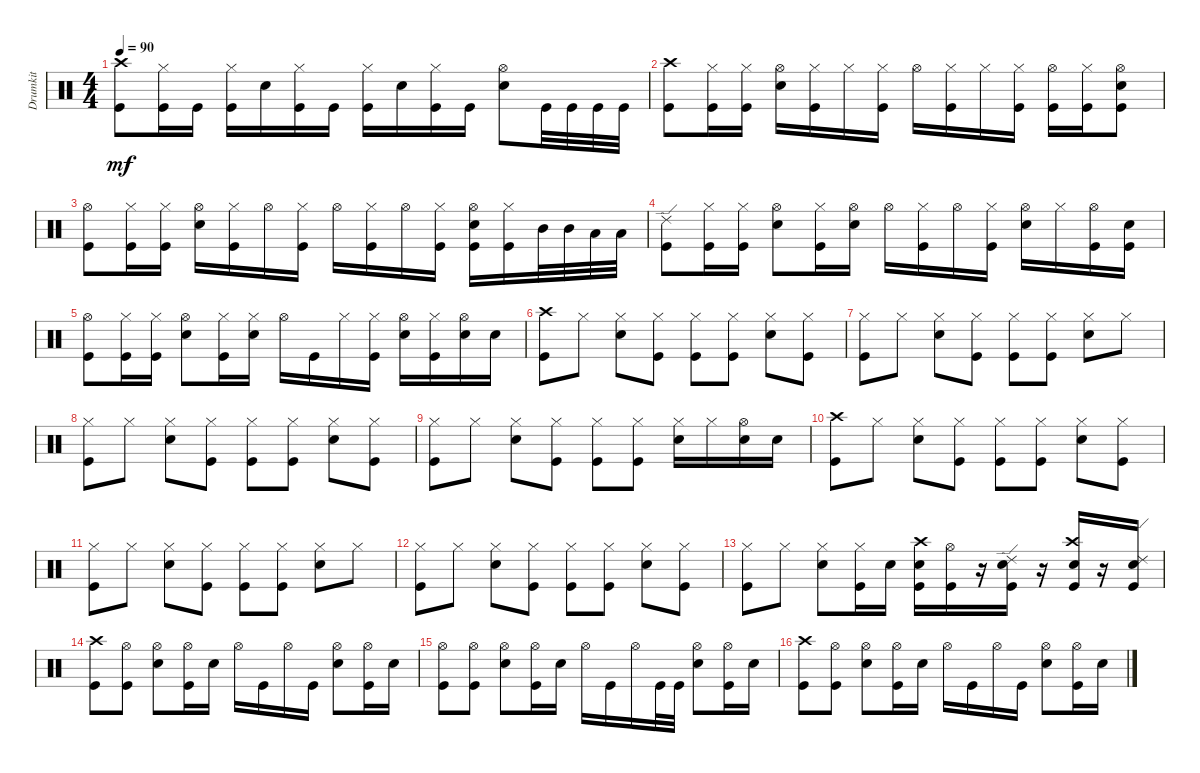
\track ("Drumkit" "Drumkit") {instrument percussion}
\staff {score}
\articulation defaults
\ts (4 4)
\tempo 90
\clef neutral
\ks c
("Kick (hit)" "Crash high (hit)").8{dy mf} ("Kick (hit)" "Hi-Hat (closed)").16 "Kick (hit)".16 ("Kick (hit)" "Hi-Hat (closed)").16 "Snare (hit) 2".16 ("Kick (hit)" "Hi-Hat (closed)").16 "Kick (hit)".16 ("Kick (hit)" "Hi-Hat (closed)").16 "Snare (hit) 2".16 ("Kick (hit)" "Hi-Hat (closed)").16 "Kick (hit)".16 ("Snare (hit) 2" "Hi-Hat (open)").8 "Kick (hit)".32 "Kick (hit)".32 "Kick (hit)".32 "Kick (hit)".32 |
("Kick (hit)" "Crash high (hit)").8 ("Kick (hit)" "Hi-Hat (closed)").16 ("Kick (hit)" "Hi-Hat (closed)").16 ("Snare (hit) 2" "Hi-Hat (open)").16 ("Kick (hit)" "Hi-Hat (closed)").16 "Hi-Hat (closed)".16 ("Kick (hit)" "Hi-Hat (closed)").16 "Hi-Hat (open)".16 ("Kick (hit)" "Hi-Hat (closed)").16 "Hi-Hat (closed)".16 ("Kick (hit)" "Hi-Hat (closed)").16 ("Kick (hit)" "Hi-Hat (open)").16 ("Kick (hit)" "Hi-Hat (closed)").16 ("Kick (hit)" "Snare (hit) 2" "Hi-Hat (open)").8 |
("Kick (hit)" "Hi-Hat (open)").8 ("Kick (hit)" "Hi-Hat (closed)").16 ("Kick (hit)" "Hi-Hat (closed)").16 ("Snare (hit) 2" "Hi-Hat (open)").16 ("Kick (hit)" "Hi-Hat (closed)").16 "Hi-Hat (open)".16 ("Kick (hit)" "Hi-Hat (closed)").16 "Hi-Hat (open)".16 ("Kick (hit)" "Hi-Hat (closed)").16 "Hi-Hat (open)".16 ("Kick (hit)" "Hi-Hat (closed)").16 ("Kick (hit)" "Snare (hit) 2" "Hi-Hat (open)").16 ("Kick (hit)" "Hi-Hat (closed)").16 "Mid Tom (hit)".32 "Mid Tom (hit)".32 "Low Tom (hit)".32 "Low Tom (hit)".32 |
("Kick (hit)" "Ride (edge) 2").8 ("Kick (hit)" "Hi-Hat (closed)").16 ("Kick (hit)" "Hi-Hat (closed)").16 ("Snare (hit) 2" "Hi-Hat (open)").8 ("Kick (hit)" "Hi-Hat (closed)").16 ("Snare (hit) 2" "Hi-Hat (open)").16 "Hi-Hat (open)".16 ("Kick (hit)" "Hi-Hat (closed)").16 "Hi-Hat (open)".16 ("Kick (hit)" "Hi-Hat (closed)").16 ("Snare (hit) 2" "Hi-Hat (open)").16 "Hi-Hat (closed)".16 ("Kick (hit)" "Hi-Hat (open)").16 ("Kick (hit)" "Snare (hit) 2").16 |
("Kick (hit)" "Hi-Hat (open)").8 ("Kick (hit)" "Hi-Hat (closed)").16 ("Kick (hit)" "Hi-Hat (closed)").16 ("Snare (hit) 2" "Hi-Hat (open)").8 ("Kick (hit)" "Hi-Hat (closed)").16 ("Snare (hit) 2" "Hi-Hat (closed)").16 "Hi-Hat (open)".16 "Kick (hit)".16 "Hi-Hat (closed)".16 ("Kick (hit)" "Hi-Hat (closed)").16 ("Snare (hit) 2" "Hi-Hat (open)").16 ("Kick (hit)" "Hi-Hat (closed)").16 ("Snare (hit) 2" "Hi-Hat (open)").16 "Snare (hit) 2".16 |
("Kick (hit)" "Crash high (hit)").8 "Hi-Hat (closed)".8 ("Hi-Hat (closed)" "Snare (hit) 2").8 ("Hi-Hat (closed)" "Kick (hit)").8 ("Hi-Hat (closed)" "Kick (hit)").8 ("Hi-Hat (closed)" "Kick (hit)").8 ("Hi-Hat (closed)" "Snare (hit) 2").8 ("Hi-Hat (closed)" "Kick (hit)").8 |
("Hi-Hat (closed)" "Kick (hit)").8 "Hi-Hat (closed)".8 ("Hi-Hat (closed)" "Snare (hit) 2").8 ("Hi-Hat (closed)" "Kick (hit)").8 ("Hi-Hat (closed)" "Kick (hit)").8 ("Hi-Hat (closed)" "Kick (hit)").8 ("Hi-Hat (closed)" "Snare (hit) 2").8 "Hi-Hat (closed)".8 |
("Hi-Hat (closed)" "Kick (hit)").8 "Hi-Hat (closed)".8 ("Hi-Hat (closed)" "Snare (hit) 2").8 ("Hi-Hat (closed)" "Kick (hit)").8 ("Hi-Hat (closed)" "Kick (hit)").8 ("Hi-Hat (closed)" "Kick (hit)").8 ("Hi-Hat (closed)" "Snare (hit) 2").8 ("Hi-Hat (closed)" "Kick (hit)").8 |
("Hi-Hat (closed)" "Kick (hit)").8 "Hi-Hat (closed)".8 ("Hi-Hat (closed)" "Snare (hit) 2").8 ("Hi-Hat (closed)" "Kick (hit)").8 ("Hi-Hat (closed)" "Kick (hit)").8 ("Hi-Hat (closed)" "Kick (hit)").8 ("Hi-Hat (closed)" "Snare (hit) 2").16 "Hi-Hat (closed)".16 ("Snare (hit) 2" "Hi-Hat (open)").16 "Snare (hit) 2".16 |
("Kick (hit)" "Crash high (hit)").8 "Hi-Hat (closed)".8 ("Hi-Hat (closed)" "Snare (hit) 2").8 ("Hi-Hat (closed)" "Kick (hit)").8 ("Hi-Hat (closed)" "Kick (hit)").8 ("Hi-Hat (closed)" "Kick (hit)").8 ("Hi-Hat (closed)" "Snare (hit) 2").8 ("Hi-Hat (closed)" "Kick (hit)").8 |
("Hi-Hat (closed)" "Kick (hit)").8 "Hi-Hat (closed)".8 ("Hi-Hat (closed)" "Snare (hit) 2").8 ("Hi-Hat (closed)" "Kick (hit)").8 ("Hi-Hat (closed)" "Kick (hit)").8 ("Hi-Hat (closed)" "Kick (hit)").8 ("Hi-Hat (closed)" "Snare (hit) 2").8 "Hi-Hat (closed)".8 |
("Hi-Hat (closed)" "Kick (hit)").8 "Hi-Hat (closed)".8 ("Hi-Hat (closed)" "Snare (hit) 2").8 ("Hi-Hat (closed)" "Kick (hit)").8 ("Hi-Hat (closed)" "Kick (hit)").8 ("Hi-Hat (closed)" "Kick (hit)").8 ("Hi-Hat (closed)" "Snare (hit) 2").8 ("Hi-Hat (closed)" "Kick (hit)").8 |
("Hi-Hat (closed)" "Kick (hit)").8 "Hi-Hat (closed)".8 ("Hi-Hat (closed)" "Snare (hit) 2").8 ("Hi-Hat (closed)" "Kick (hit)").16 "Snare (hit) 2".16 ("Snare (hit) 2" "Kick (hit)" "Crash high (hit)").16 ("Kick (hit)" "Hi-Hat (open)").16 r.16 ("Kick (hit)" "Ride (edge) 2" "Snare (hit) 2").16 r.16 ("Kick (hit)" "Snare (hit) 2" "Crash high (hit)").16 r.16 ("Kick (hit)" "Snare (hit) 2" "Ride (edge) 2").16 |
("Kick (hit)" "Crash high (hit)").8 ("Kick (hit)" "Hi-Hat (open)").8 ("Snare (hit) 2" "Hi-Hat (open)").8 ("Kick (hit)" "Hi-Hat (open)").16 "Snare (hit) 2".16 "Hi-Hat (open)".16 "Kick (hit)".16 "Hi-Hat (open)".16 "Kick (hit)".16 ("Snare (hit) 2" "Hi-Hat (open)").8 ("Kick (hit)" "Hi-Hat (open)").16 "Snare (hit) 2".16 |
("Kick (hit)" "Hi-Hat (open)").8 ("Kick (hit)" "Hi-Hat (open)").8 ("Snare (hit) 2" "Hi-Hat (open)").8 ("Kick (hit)" "Hi-Hat (open)").16 "Snare (hit) 2".16 "Hi-Hat (open)".16 "Kick (hit)".16 "Hi-Hat (open)".16 "Kick (hit)".32 "Kick (hit)".32 ("Snare (hit) 2" "Hi-Hat (open)").8 ("Kick (hit)" "Hi-Hat (open)").16 "Snare (hit) 2".16 |
("Kick (hit)" "Crash high (hit)").8 ("Kick (hit)" "Hi-Hat (open)").8 ("Snare (hit) 2" "Hi-Hat (open)").8 ("Kick (hit)" "Hi-Hat (open)").16 "Snare (hit) 2".16 "Hi-Hat (open)".16 "Kick (hit)".16 "Hi-Hat (open)".16 "Kick (hit)".16 ("Snare (hit) 2" "Hi-Hat (open)").8 ("Kick (hit)" "Hi-Hat (open)").16 "Snare (hit) 2".16
